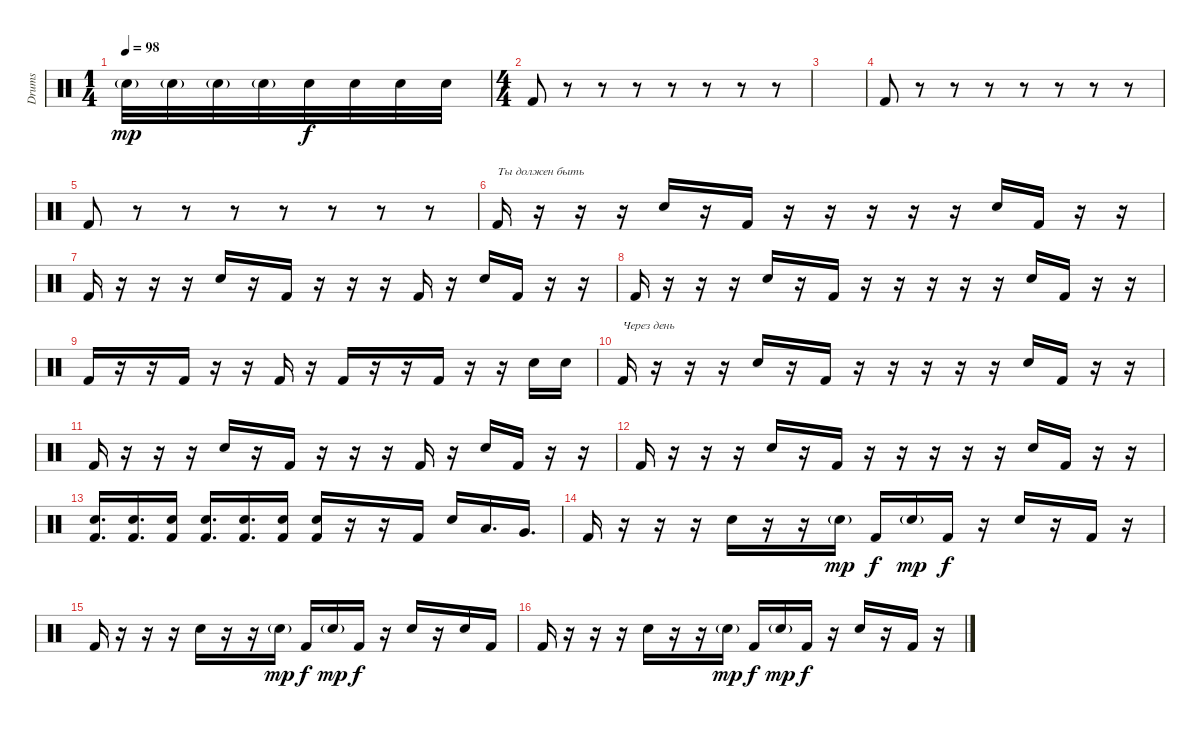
\track ("Drums" "Drums") {instrument percussion}
\staff {score}
\articulation defaults
\ts (1 4)
\tempo 98
\clef neutral
\ks c "Electric Snare (hit)"{g}.32{dy mp} "Electric Snare (hit)"{g}.32 "Electric Snare (hit)"{g}.32 "Electric Snare (hit)"{g}.32 "Electric Snare (hit)".32{dy f} "Electric Snare (hit)".32 "Electric Snare (hit)".32 "Electric Snare (hit)".32
|
\ts (4 4)
"Kick (hit) 2".8 r.8 r.8 r.8 r.8 r.8 r.8 r.8 |
|
"Kick (hit) 2".8 r.8 r.8 r.8 r.8 r.8 r.8 r.8 |
"Kick (hit) 2".8 r.8 r.8 r.8 r.8 r.8 r.8 r.8 |
"Kick (hit) 2".16{txt "Ты должен быть"} r.16 r.16 r.16 "Electric Snare (hit)".16 r.16 "Kick (hit) 2".16 r.16 r.16 r.16 r.16 r.16 "Electric Snare (hit)".16 "Kick (hit) 2".16 r.16 r.16 |
"Kick (hit) 2".16 r.16 r.16 r.16 "Electric Snare (hit)".16 r.16 "Kick (hit) 2".16 r.16 r.16 r.16 "Kick (hit) 2".16 r.16 "Electric Snare (hit)".16 "Kick (hit) 2".16 r.16 r.16 |
"Kick (hit) 2".16 r.16 r.16 r.16 "Electric Snare (hit)".16 r.16 "Kick (hit) 2".16 r.16 r.16 r.16 r.16 r.16 "Electric Snare (hit)".16 "Kick (hit) 2".16 r.16 r.16 |
"Kick (hit) 2".16 r.16 r.16 "Kick (hit) 2".16 r.16 r.16 "Kick (hit) 2".16 r.16 "Kick (hit) 2".16 r.16 r.16 "Kick (hit) 2".16 r.16 r.16 "Electric Snare (hit)".16 "Electric Snare (hit)".16 |
"Kick (hit) 2".16{txt "Через день"} r.16 r.16 r.16 "Electric Snare (hit)".16 r.16 "Kick (hit) 2".16 r.16 r.16 r.16 r.16 r.16 "Electric Snare (hit)".16 "Kick (hit) 2".16 r.16 r.16 |
"Kick (hit) 2".16 r.16 r.16 r.16 "Electric Snare (hit)".16 r.16 "Kick (hit) 2".16 r.16 r.16 r.16 "Kick (hit) 2".16 r.16 "Electric Snare (hit)".16 "Kick (hit) 2".16 r.16 r.16 |
"Kick (hit) 2".16 r.16 r.16 r.16 "Electric Snare (hit)".16 r.16 "Kick (hit) 2".16 r.16 r.16 r.16 r.16 r.16 "Electric Snare (hit)".16 "Kick (hit) 2".16 r.16 r.16 |
("Kick (hit) 2" "Electric Snare (hit)").16{d} ("Kick (hit) 2" "Electric Snare (hit)").16{d} ("Kick (hit) 2" "Electric Snare (hit)").16 ("Kick (hit) 2" "Electric Snare (hit)").16{d} ("Kick (hit) 2" "Electric Snare (hit)").16{d} ("Kick (hit) 2" "Electric Snare (hit)").16 ("Kick (hit) 2" "Electric Snare (hit)").16 r.16 r.16 "Kick (hit) 2".16 "Electric Snare (hit)".16 "Low Tom (hit)".16{d} "Very Low Tom (hit)".16{d} |
"Kick (hit) 2".16 r.16 r.16 r.16 "Electric Snare (hit)".16 r.16 r.16 "Electric Snare (hit)"{g}.16{dy mp} "Kick (hit) 2".16{dy f} "Electric Snare (hit)"{g}.16{dy mp} "Kick (hit) 2".16{dy f} r.16 "Electric Snare (hit)".16 r.16 "Kick (hit) 2".16 r.16 |
"Kick (hit) 2".16 r.16 r.16 r.16 "Electric Snare (hit)".16 r.16 r.16 "Electric Snare (hit)"{g}.16{dy mp} "Kick (hit) 2".16{dy f} "Electric Snare (hit)"{g}.16{dy mp} "Kick (hit) 2".16{dy f} r.16 "Electric Snare (hit)".16 r.16 "Electric Snare (hit)".16 "Kick (hit) 2".16 |
"Kick (hit) 2".16 r.16 r.16 r.16 "Electric Snare (hit)".16 r.16 r.16 "Electric Snare (hit)"{g}.16{dy mp} "Kick (hit) 2".16{dy f} "Electric Snare (hit)"{g}.16{dy mp} "Kick (hit) 2".16{dy f} r.16 "Electric Snare (hit)".16 r.16 "Kick (hit) 2".16 r.16
